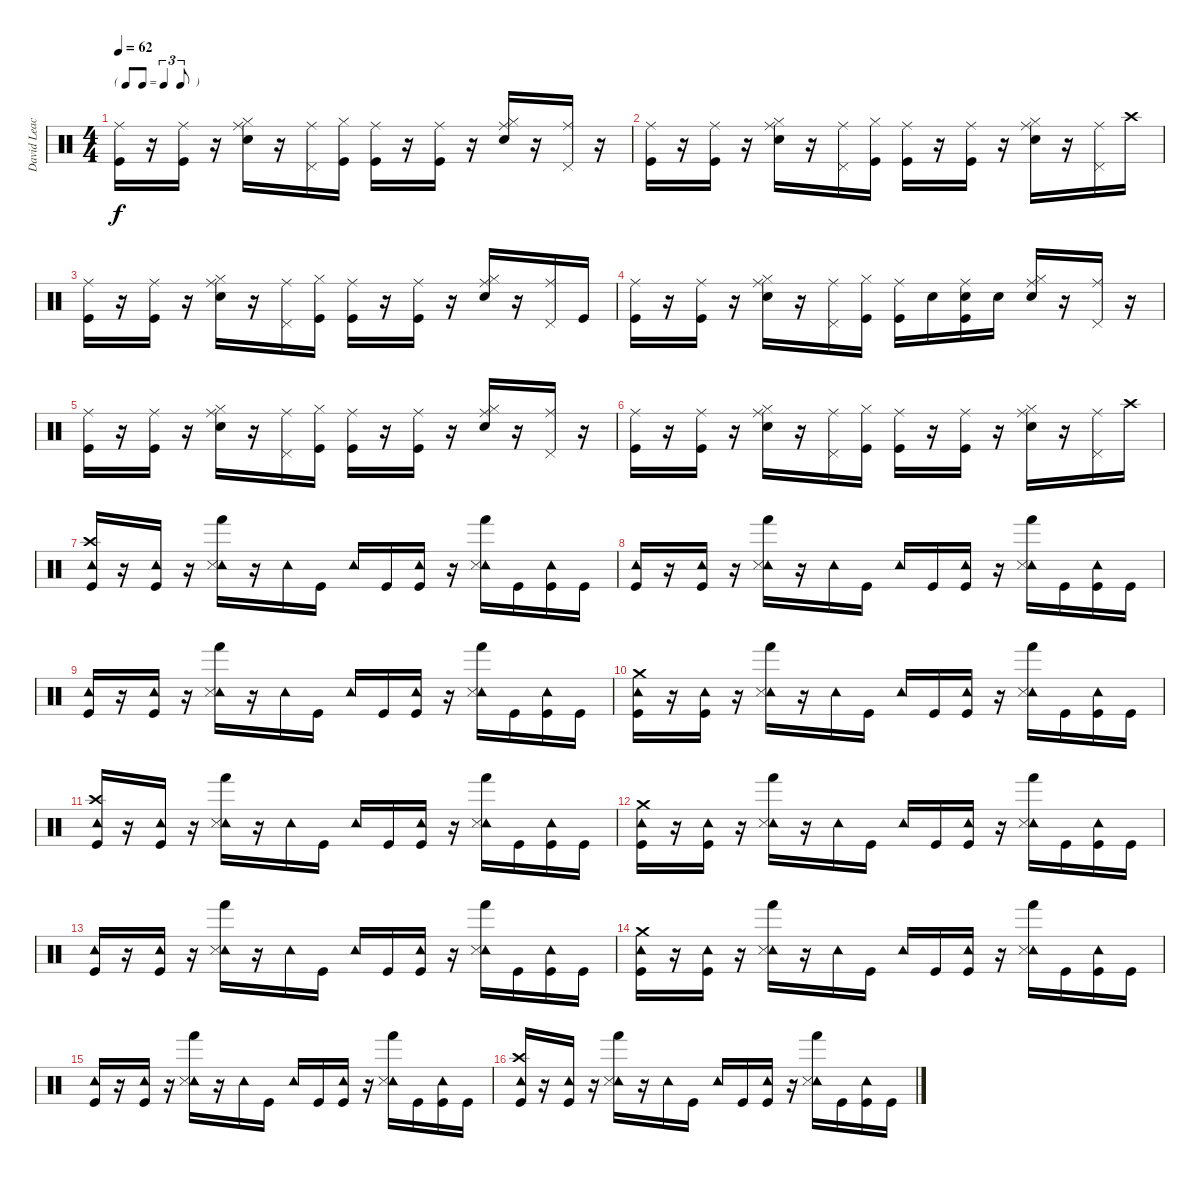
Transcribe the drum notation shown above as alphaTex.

\track ("David Leach-(Percussions)" "David Leac") {instrument percussion}
\staff {score}
\articulation defaults
\ts (4 4)
\tf triplet8th
\tempo 62
\clef neutral
\ks c
("Ride (middle)" "Kick (hit)").16{dy f volume 13} r.16 ("Ride (middle)" "Kick (hit)").16 r.16 ("Ride (middle)" "Hi-Hat (closed)" "Electric Snare (hit)").16 r.16 ("Ride (middle)" "Pedal Hi-Hat (hit)").16 ("Hi-Hat (closed)" "Kick (hit)").16 ("Ride (middle)" "Kick (hit)").16 r.16 ("Ride (middle)" "Kick (hit)").16 r.16 ("Ride (middle)" "Hi-Hat (closed)" "Electric Snare (hit)").16 r.16 ("Ride (middle)" "Pedal Hi-Hat (hit)").16 r.16 |
("Ride (middle)" "Kick (hit)").16{volume 13} r.16 ("Ride (middle)" "Kick (hit)").16 r.16 ("Ride (middle)" "Hi-Hat (closed)" "Electric Snare (hit)").16 r.16 ("Ride (middle)" "Pedal Hi-Hat (hit)").16 ("Hi-Hat (closed)" "Kick (hit)").16 ("Ride (middle)" "Kick (hit)").16 r.16 ("Ride (middle)" "Kick (hit)").16 r.16 ("Ride (middle)" "Hi-Hat (closed)" "Electric Snare (hit)").16 r.16 ("Ride (middle)" "Pedal Hi-Hat (hit)").16 "Crash high (hit)".16 |
("Ride (middle)" "Kick (hit)").16{volume 13} r.16 ("Ride (middle)" "Kick (hit)").16 r.16 ("Ride (middle)" "Hi-Hat (closed)" "Electric Snare (hit)").16 r.16 ("Ride (middle)" "Pedal Hi-Hat (hit)").16 ("Hi-Hat (closed)" "Kick (hit)").16 ("Ride (middle)" "Kick (hit)").16 r.16 ("Ride (middle)" "Kick (hit)").16 r.16 ("Ride (middle)" "Hi-Hat (closed)" "Electric Snare (hit)").16 r.16 ("Ride (middle)" "Pedal Hi-Hat (hit)").16 "Kick (hit)".16 |
("Ride (middle)" "Kick (hit)").16{volume 13} r.16 ("Ride (middle)" "Kick (hit)").16 r.16 ("Ride (middle)" "Hi-Hat (closed)" "Electric Snare (hit)").16 r.16 ("Ride (middle)" "Pedal Hi-Hat (hit)").16 ("Hi-Hat (closed)" "Kick (hit)").16 ("Ride (middle)" "Kick (hit)").16 "Electric Snare (hit)".16 ("Ride (middle)" "Electric Snare (hit)" "Kick (hit)").16 "Electric Snare (hit)".16 ("Ride (middle)" "Hi-Hat (closed)" "Electric Snare (hit)").16 r.16 ("Ride (middle)" "Pedal Hi-Hat (hit)").16 r.16 |
("Ride (middle)" "Kick (hit)").16{volume 13} r.16 ("Ride (middle)" "Kick (hit)").16 r.16 ("Ride (middle)" "Hi-Hat (closed)" "Electric Snare (hit)").16 r.16 ("Ride (middle)" "Pedal Hi-Hat (hit)").16 ("Hi-Hat (closed)" "Kick (hit)").16 ("Ride (middle)" "Kick (hit)").16 r.16 ("Ride (middle)" "Kick (hit)").16 r.16 ("Ride (middle)" "Hi-Hat (closed)" "Electric Snare (hit)").16 r.16 ("Ride (middle)" "Pedal Hi-Hat (hit)").16 r.16 |
("Ride (middle)" "Kick (hit)").16{volume 13} r.16 ("Ride (middle)" "Kick (hit)").16 r.16 ("Ride (middle)" "Hi-Hat (closed)" "Electric Snare (hit)").16 r.16 ("Ride (middle)" "Pedal Hi-Hat (hit)").16 ("Hi-Hat (closed)" "Kick (hit)").16 ("Ride (middle)" "Kick (hit)").16 r.16 ("Ride (middle)" "Kick (hit)").16 r.16 ("Ride (middle)" "Hi-Hat (closed)" "Electric Snare (hit)").16 r.16 ("Ride (middle)" "Pedal Hi-Hat (hit)").16 "Crash high (hit)".16 |
("Tambourine (hit)" "Crash high (hit)" "Kick (hit)").16 r.16 ("Tambourine (hit)" "Kick (hit)").16 r.16 ("Tambourine (hit)" "Snare (side stick) 3" "Hand (hit)").16 r.16 "Tambourine (hit)".16 "Kick (hit)".16 "Tambourine (hit)".16 "Kick (hit)".16 ("Tambourine (hit)" "Kick (hit)").16 r.16 ("Tambourine (hit)" "Snare (side stick) 3" "Hand (hit)").16 "Kick (hit)".16 ("Tambourine (hit)" "Kick (hit)").16 "Kick (hit)".16 |
("Tambourine (hit)" "Kick (hit)").16 r.16 ("Tambourine (hit)" "Kick (hit)").16 r.16 ("Tambourine (hit)" "Snare (side stick) 3" "Hand (hit)").16 r.16 "Tambourine (hit)".16 "Kick (hit)".16 "Tambourine (hit)".16 "Kick (hit)".16 ("Tambourine (hit)" "Kick (hit)").16 r.16 ("Tambourine (hit)" "Snare (side stick) 3" "Hand (hit)").16 "Kick (hit)".16 ("Tambourine (hit)" "Kick (hit)").16 "Kick (hit)".16 |
("Tambourine (hit)" "Kick (hit)").16 r.16 ("Tambourine (hit)" "Kick (hit)").16 r.16 ("Tambourine (hit)" "Snare (side stick) 3" "Hand (hit)").16 r.16 "Tambourine (hit)".16 "Kick (hit)".16 "Tambourine (hit)".16 "Kick (hit)".16 ("Tambourine (hit)" "Kick (hit)").16 r.16 ("Tambourine (hit)" "Snare (side stick) 3" "Hand (hit)").16 "Kick (hit)".16 ("Tambourine (hit)" "Kick (hit)").16 "Kick (hit)".16 |
("Tambourine (hit)" "Crash medium (hit)" "Kick (hit)").16 r.16 ("Tambourine (hit)" "Kick (hit)").16 r.16 ("Tambourine (hit)" "Snare (side stick) 3" "Hand (hit)").16 r.16 "Tambourine (hit)".16 "Kick (hit)".16 "Tambourine (hit)".16 "Kick (hit)".16 ("Tambourine (hit)" "Kick (hit)").16 r.16 ("Tambourine (hit)" "Snare (side stick) 3" "Hand (hit)").16 "Kick (hit)".16 ("Tambourine (hit)" "Kick (hit)").16 "Kick (hit)".16 |
("Tambourine (hit)" "Crash high (hit)" "Kick (hit)").16 r.16 ("Tambourine (hit)" "Kick (hit)").16 r.16 ("Tambourine (hit)" "Snare (side stick) 3" "Hand (hit)").16 r.16 "Tambourine (hit)".16 "Kick (hit)".16 "Tambourine (hit)".16 "Kick (hit)".16 ("Tambourine (hit)" "Kick (hit)").16 r.16 ("Tambourine (hit)" "Snare (side stick) 3" "Hand (hit)").16 "Kick (hit)".16 ("Tambourine (hit)" "Kick (hit)").16 "Kick (hit)".16 |
("Tambourine (hit)" "Crash medium (hit)" "Kick (hit)").16 r.16 ("Tambourine (hit)" "Kick (hit)").16 r.16 ("Tambourine (hit)" "Snare (side stick) 3" "Hand (hit)").16 r.16 "Tambourine (hit)".16 "Kick (hit)".16 "Tambourine (hit)".16 "Kick (hit)".16 ("Tambourine (hit)" "Kick (hit)").16 r.16 ("Tambourine (hit)" "Snare (side stick) 3" "Hand (hit)").16 "Kick (hit)".16 ("Tambourine (hit)" "Kick (hit)").16 "Kick (hit)".16 |
("Tambourine (hit)" "Kick (hit)").16 r.16 ("Tambourine (hit)" "Kick (hit)").16 r.16 ("Tambourine (hit)" "Snare (side stick) 3" "Hand (hit)").16 r.16 "Tambourine (hit)".16 "Kick (hit)".16 "Tambourine (hit)".16 "Kick (hit)".16 ("Tambourine (hit)" "Kick (hit)").16 r.16 ("Tambourine (hit)" "Snare (side stick) 3" "Hand (hit)").16 "Kick (hit)".16 ("Tambourine (hit)" "Kick (hit)").16 "Kick (hit)".16 |
("Tambourine (hit)" "Crash medium (hit)" "Kick (hit)").16 r.16 ("Tambourine (hit)" "Kick (hit)").16 r.16 ("Tambourine (hit)" "Snare (side stick) 3" "Hand (hit)").16 r.16 "Tambourine (hit)".16 "Kick (hit)".16 "Tambourine (hit)".16 "Kick (hit)".16 ("Tambourine (hit)" "Kick (hit)").16 r.16 ("Tambourine (hit)" "Snare (side stick) 3" "Hand (hit)").16 "Kick (hit)".16 ("Tambourine (hit)" "Kick (hit)").16 "Kick (hit)".16 |
("Tambourine (hit)" "Kick (hit)").16 r.16 ("Tambourine (hit)" "Kick (hit)").16 r.16 ("Tambourine (hit)" "Snare (side stick) 3" "Hand (hit)").16 r.16 "Tambourine (hit)".16 "Kick (hit)".16 "Tambourine (hit)".16 "Kick (hit)".16 ("Tambourine (hit)" "Kick (hit)").16 r.16 ("Tambourine (hit)" "Snare (side stick) 3" "Hand (hit)").16 "Kick (hit)".16 ("Tambourine (hit)" "Kick (hit)").16 "Kick (hit)".16 |
("Tambourine (hit)" "Crash high (hit)" "Kick (hit)").16 r.16 ("Tambourine (hit)" "Kick (hit)").16 r.16 ("Tambourine (hit)" "Snare (side stick) 3" "Hand (hit)").16 r.16 "Tambourine (hit)".16 "Kick (hit)".16 "Tambourine (hit)".16 "Kick (hit)".16 ("Tambourine (hit)" "Kick (hit)").16 r.16 ("Tambourine (hit)" "Snare (side stick) 3" "Hand (hit)").16 "Kick (hit)".16 ("Tambourine (hit)" "Kick (hit)").16 "Kick (hit)".16
